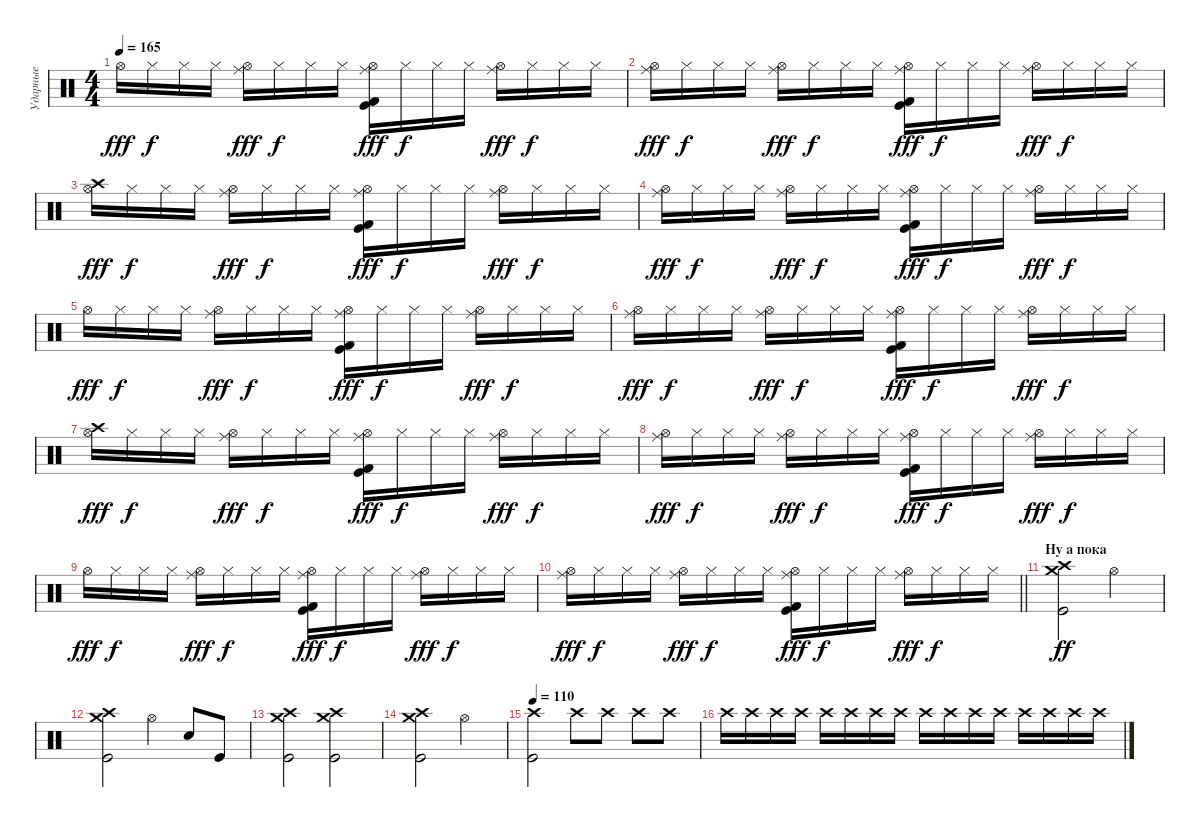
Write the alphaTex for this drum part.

\track ("Ударные" "Ударные") {instrument percussion}
\staff {score}
\articulation defaults
\ts (4 4)
\tempo 165
\clef neutral
\ks c "Hi-Hat (open)".16{dy fff} "Hi-Hat (closed)".16{dy f} "Hi-Hat (closed)".16 "Hi-Hat (closed)".16
("Hi-Hat (open)" "Ride (middle)").16{dy fff} "Hi-Hat (closed)".16{dy f} "Hi-Hat (closed)".16 "Hi-Hat (closed)".16 ("Hi-Hat (open)" "Ride (middle)" "Kick (hit)" "Kick (hit) 2").16{dy fff} "Hi-Hat (closed)".16{dy f} "Hi-Hat (closed)".16 "Hi-Hat (closed)".16 ("Hi-Hat (open)" "Ride (middle)").16{dy fff} "Hi-Hat (closed)".16{dy f} "Hi-Hat (closed)".16 "Hi-Hat (closed)".16 |
("Hi-Hat (open)" "Ride (middle)").16{dy fff} "Hi-Hat (closed)".16{dy f} "Hi-Hat (closed)".16 "Hi-Hat (closed)".16 ("Hi-Hat (open)" "Ride (middle)").16{dy fff} "Hi-Hat (closed)".16{dy f} "Hi-Hat (closed)".16 "Hi-Hat (closed)".16 ("Hi-Hat (open)" "Ride (middle)" "Kick (hit)" "Kick (hit) 2").16{dy fff} "Hi-Hat (closed)".16{dy f} "Hi-Hat (closed)".16 "Hi-Hat (closed)".16 ("Hi-Hat (open)" "Ride (middle)").16{dy fff} "Hi-Hat (closed)".16{dy f} "Hi-Hat (closed)".16 "Hi-Hat (closed)".16 |
("Hi-Hat (open)" "Crash high (hit)").16{dy fff} "Hi-Hat (closed)".16{dy f} "Hi-Hat (closed)".16 "Hi-Hat (closed)".16 ("Hi-Hat (open)" "Ride (middle)").16{dy fff} "Hi-Hat (closed)".16{dy f} "Hi-Hat (closed)".16 "Hi-Hat (closed)".16 ("Hi-Hat (open)" "Ride (middle)" "Kick (hit)" "Kick (hit) 2").16{dy fff} "Hi-Hat (closed)".16{dy f} "Hi-Hat (closed)".16 "Hi-Hat (closed)".16 ("Hi-Hat (open)" "Ride (middle)").16{dy fff} "Hi-Hat (closed)".16{dy f} "Hi-Hat (closed)".16 "Hi-Hat (closed)".16 |
("Hi-Hat (open)" "Ride (middle)").16{dy fff} "Hi-Hat (closed)".16{dy f} "Hi-Hat (closed)".16 "Hi-Hat (closed)".16 ("Hi-Hat (open)" "Ride (middle)").16{dy fff} "Hi-Hat (closed)".16{dy f} "Hi-Hat (closed)".16 "Hi-Hat (closed)".16 ("Hi-Hat (open)" "Ride (middle)" "Kick (hit)" "Kick (hit) 2").16{dy fff} "Hi-Hat (closed)".16{dy f} "Hi-Hat (closed)".16 "Hi-Hat (closed)".16 ("Hi-Hat (open)" "Ride (middle)").16{dy fff} "Hi-Hat (closed)".16{dy f} "Hi-Hat (closed)".16 "Hi-Hat (closed)".16 |
"Hi-Hat (open)".16{dy fff} "Hi-Hat (closed)".16{dy f} "Hi-Hat (closed)".16 "Hi-Hat (closed)".16 ("Hi-Hat (open)" "Ride (middle)").16{dy fff} "Hi-Hat (closed)".16{dy f} "Hi-Hat (closed)".16 "Hi-Hat (closed)".16 ("Hi-Hat (open)" "Ride (middle)" "Kick (hit)" "Kick (hit) 2").16{dy fff} "Hi-Hat (closed)".16{dy f} "Hi-Hat (closed)".16 "Hi-Hat (closed)".16 ("Hi-Hat (open)" "Ride (middle)").16{dy fff} "Hi-Hat (closed)".16{dy f} "Hi-Hat (closed)".16 "Hi-Hat (closed)".16 |
("Hi-Hat (open)" "Ride (middle)").16{dy fff} "Hi-Hat (closed)".16{dy f} "Hi-Hat (closed)".16 "Hi-Hat (closed)".16 ("Hi-Hat (open)" "Ride (middle)").16{dy fff} "Hi-Hat (closed)".16{dy f} "Hi-Hat (closed)".16 "Hi-Hat (closed)".16 ("Hi-Hat (open)" "Ride (middle)" "Kick (hit)" "Kick (hit) 2").16{dy fff} "Hi-Hat (closed)".16{dy f} "Hi-Hat (closed)".16 "Hi-Hat (closed)".16 ("Hi-Hat (open)" "Ride (middle)").16{dy fff} "Hi-Hat (closed)".16{dy f} "Hi-Hat (closed)".16 "Hi-Hat (closed)".16 |
("Hi-Hat (open)" "Crash high (hit)").16{dy fff} "Hi-Hat (closed)".16{dy f} "Hi-Hat (closed)".16 "Hi-Hat (closed)".16 ("Hi-Hat (open)" "Ride (middle)").16{dy fff} "Hi-Hat (closed)".16{dy f} "Hi-Hat (closed)".16 "Hi-Hat (closed)".16 ("Hi-Hat (open)" "Ride (middle)" "Kick (hit)" "Kick (hit) 2").16{dy fff} "Hi-Hat (closed)".16{dy f} "Hi-Hat (closed)".16 "Hi-Hat (closed)".16 ("Hi-Hat (open)" "Ride (middle)").16{dy fff} "Hi-Hat (closed)".16{dy f} "Hi-Hat (closed)".16 "Hi-Hat (closed)".16 |
("Hi-Hat (open)" "Ride (middle)").16{dy fff} "Hi-Hat (closed)".16{dy f} "Hi-Hat (closed)".16 "Hi-Hat (closed)".16 ("Hi-Hat (open)" "Ride (middle)").16{dy fff} "Hi-Hat (closed)".16{dy f} "Hi-Hat (closed)".16 "Hi-Hat (closed)".16 ("Hi-Hat (open)" "Ride (middle)" "Kick (hit)" "Kick (hit) 2").16{dy fff} "Hi-Hat (closed)".16{dy f} "Hi-Hat (closed)".16 "Hi-Hat (closed)".16 ("Hi-Hat (open)" "Ride (middle)").16{dy fff} "Hi-Hat (closed)".16{dy f} "Hi-Hat (closed)".16 "Hi-Hat (closed)".16 |
"Hi-Hat (open)".16{dy fff} "Hi-Hat (closed)".16{dy f} "Hi-Hat (closed)".16 "Hi-Hat (closed)".16 ("Hi-Hat (open)" "Ride (middle)").16{dy fff} "Hi-Hat (closed)".16{dy f} "Hi-Hat (closed)".16 "Hi-Hat (closed)".16 ("Hi-Hat (open)" "Ride (middle)" "Kick (hit)" "Kick (hit) 2").16{dy fff} "Hi-Hat (closed)".16{dy f} "Hi-Hat (closed)".16 "Hi-Hat (closed)".16 ("Hi-Hat (open)" "Ride (middle)").16{dy fff} "Hi-Hat (closed)".16{dy f} "Hi-Hat (closed)".16 "Hi-Hat (closed)".16 |
\barLineRight lightlight
("Hi-Hat (open)" "Ride (middle)").16{dy fff} "Hi-Hat (closed)".16{dy f} "Hi-Hat (closed)".16 "Hi-Hat (closed)".16 ("Hi-Hat (open)" "Ride (middle)").16{dy fff} "Hi-Hat (closed)".16{dy f} "Hi-Hat (closed)".16 "Hi-Hat (closed)".16 ("Hi-Hat (open)" "Ride (middle)" "Kick (hit)" "Kick (hit) 2").16{dy fff} "Hi-Hat (closed)".16{dy f} "Hi-Hat (closed)".16 "Hi-Hat (closed)".16 ("Hi-Hat (open)" "Ride (middle)").16{dy fff} "Hi-Hat (closed)".16{dy f} "Hi-Hat (closed)".16 "Hi-Hat (closed)".16 |
\section ("" "Ну а пока")
("Crash medium (hit)" "Crash high (hit)" "Kick (hit)").2{dy ff} "Hi-Hat (open)".2 |
("Crash medium (hit)" "Crash high (hit)" "Kick (hit)").2 "Hi-Hat (open)".4 "Snare (hit) 2".8 "Kick (hit)".8 |
("Crash high (hit)" "Crash medium (hit)" "Kick (hit)").2 ("Crash high (hit)" "Crash medium (hit)" "Kick (hit)").2 |
("Crash medium (hit)" "Crash high (hit)" "Kick (hit)").2 "Hi-Hat (open)".2 |
\tempo 110
("Crash high (hit)" "Kick (hit)").2 "Crash high (hit)".8 "Crash high (hit)".8 "Crash high (hit)".8 "Crash high (hit)".8 |
"Crash high (hit)".16 "Crash high (hit)".16 "Crash high (hit)".16 "Crash high (hit)".16 "Crash high (hit)".16 "Crash high (hit)".16 "Crash high (hit)".16 "Crash high (hit)".16 "Crash high (hit)".16 "Crash high (hit)".16 "Crash high (hit)".16 "Crash high (hit)".16 "Crash high (hit)".16 "Crash high (hit)".16 "Crash high (hit)".16 "Crash high (hit)".16
